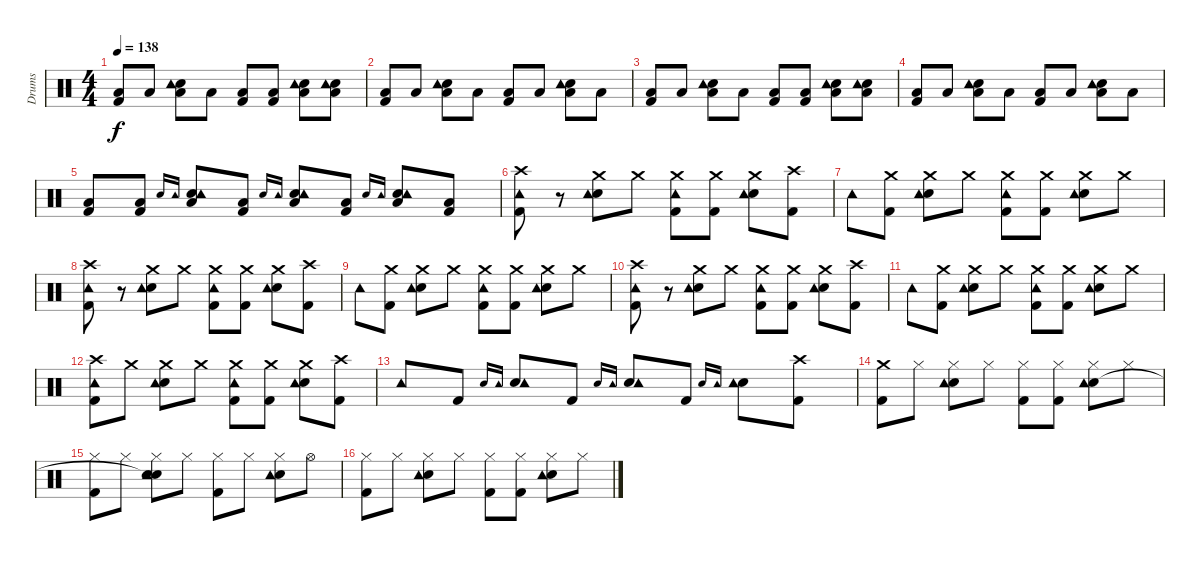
\track ("Drums" "Drums") {instrument percussion}
\staff {score}
\articulation defaults
\ts (4 4)
\tempo 138
\clef neutral
\ks c
("Low Floor Tom (hit)" "Kick (hit) 2").8{dy f} "Low Floor Tom (hit)".8 ("Low Floor Tom (hit)" "Electric Snare (hit)" "Tambourine (hit)").8 "Low Floor Tom (hit)".8 ("Low Floor Tom (hit)" "Kick (hit) 2").8 ("Low Floor Tom (hit)" "Kick (hit) 2").8 ("Low Floor Tom (hit)" "Electric Snare (hit)" "Tambourine (hit)").8 ("Low Floor Tom (hit)" "Electric Snare (hit)" "Tambourine (hit)").8 |
("Low Floor Tom (hit)" "Kick (hit) 2").8 "Low Floor Tom (hit)".8 ("Low Floor Tom (hit)" "Electric Snare (hit)" "Tambourine (hit)").8 "Low Floor Tom (hit)".8 ("Low Floor Tom (hit)" "Kick (hit) 2").8 "Low Floor Tom (hit)".8 ("Low Floor Tom (hit)" "Electric Snare (hit)" "Tambourine (hit)").8 "Low Floor Tom (hit)".8 |
("Low Floor Tom (hit)" "Kick (hit) 2").8 "Low Floor Tom (hit)".8 ("Low Floor Tom (hit)" "Electric Snare (hit)" "Tambourine (hit)").8 "Low Floor Tom (hit)".8 ("Low Floor Tom (hit)" "Kick (hit) 2").8 ("Low Floor Tom (hit)" "Kick (hit) 2").8 ("Low Floor Tom (hit)" "Electric Snare (hit)" "Tambourine (hit)").8 ("Low Floor Tom (hit)" "Electric Snare (hit)" "Tambourine (hit)").8 |
("Low Floor Tom (hit)" "Kick (hit) 2").8 "Low Floor Tom (hit)".8 ("Low Floor Tom (hit)" "Electric Snare (hit)" "Tambourine (hit)").8 "Low Floor Tom (hit)".8 ("Low Floor Tom (hit)" "Kick (hit) 2").8 "Low Floor Tom (hit)".8 ("Low Floor Tom (hit)" "Electric Snare (hit)" "Tambourine (hit)").8 "Low Floor Tom (hit)".8 |
("Low Floor Tom (hit)" "Kick (hit) 2").8 ("Low Floor Tom (hit)" "Kick (hit) 2").8 "Electric Snare (hit)".16{gr onbeat} "Tambourine (hit)".16{gr onbeat} ("Low Floor Tom (hit)" "Electric Snare (hit)" "Tambourine (hit)").8 ("Low Floor Tom (hit)" "Kick (hit) 2").8 "Electric Snare (hit)".16{gr onbeat} "Tambourine (hit)".16{gr onbeat} ("Low Floor Tom (hit)" "Electric Snare (hit)" "Tambourine (hit)").8 ("Low Floor Tom (hit)" "Kick (hit) 2").8 "Electric Snare (hit)".16{gr onbeat} "Tambourine (hit)".16{gr onbeat} ("Low Floor Tom (hit)" "Electric Snare (hit)" "Tambourine (hit)").8 ("Low Floor Tom (hit)" "Kick (hit) 2").8 |
("Crash high (hit)" "Kick (hit) 2" "Tambourine (hit)").8 r.8 ("Crash medium (hit)" "Electric Snare (hit)" "Tambourine (hit)").8 "Crash medium (hit)".8 ("Crash medium (hit)" "Kick (hit) 2" "Tambourine (hit)").8 ("Crash medium (hit)" "Kick (hit) 2").8 ("Crash medium (hit)" "Electric Snare (hit)" "Tambourine (hit)").8 ("Crash high (hit)" "Kick (hit) 2").8 |
"Tambourine (hit)".8 ("Crash medium (hit)" "Kick (hit) 2").8 ("Crash medium (hit)" "Electric Snare (hit)" "Tambourine (hit)").8 "Crash medium (hit)".8 ("Crash medium (hit)" "Kick (hit) 2" "Tambourine (hit)").8 ("Crash medium (hit)" "Kick (hit) 2").8 ("Crash medium (hit)" "Electric Snare (hit)" "Tambourine (hit)").8 "Crash medium (hit)".8 |
("Crash high (hit)" "Kick (hit) 2" "Tambourine (hit)").8 r.8 ("Crash medium (hit)" "Electric Snare (hit)" "Tambourine (hit)").8 "Crash medium (hit)".8 ("Crash medium (hit)" "Kick (hit) 2" "Tambourine (hit)").8 ("Crash medium (hit)" "Kick (hit) 2").8 ("Crash medium (hit)" "Electric Snare (hit)" "Tambourine (hit)").8 ("Crash high (hit)" "Kick (hit) 2").8 |
"Tambourine (hit)".8 ("Crash medium (hit)" "Kick (hit) 2").8 ("Crash medium (hit)" "Electric Snare (hit)" "Tambourine (hit)").8 "Crash medium (hit)".8 ("Crash medium (hit)" "Kick (hit) 2" "Tambourine (hit)").8 ("Crash medium (hit)" "Kick (hit) 2").8 ("Crash medium (hit)" "Electric Snare (hit)" "Tambourine (hit)").8 "Crash medium (hit)".8 |
("Crash high (hit)" "Kick (hit) 2" "Tambourine (hit)").8 r.8 ("Crash medium (hit)" "Electric Snare (hit)" "Tambourine (hit)").8 "Crash medium (hit)".8 ("Crash medium (hit)" "Kick (hit) 2" "Tambourine (hit)").8 ("Crash medium (hit)" "Kick (hit) 2").8 ("Crash medium (hit)" "Electric Snare (hit)" "Tambourine (hit)").8 ("Crash high (hit)" "Kick (hit) 2").8 |
"Tambourine (hit)".8 ("Crash medium (hit)" "Kick (hit) 2").8 ("Crash medium (hit)" "Electric Snare (hit)" "Tambourine (hit)").8 "Crash medium (hit)".8 ("Crash medium (hit)" "Kick (hit) 2" "Tambourine (hit)").8 ("Crash medium (hit)" "Kick (hit) 2").8 ("Crash medium (hit)" "Electric Snare (hit)" "Tambourine (hit)").8 "Crash medium (hit)".8 |
("Crash high (hit)" "Kick (hit) 2" "Tambourine (hit)").8 "Crash medium (hit)".8 ("Crash medium (hit)" "Electric Snare (hit)" "Tambourine (hit)").8 "Crash medium (hit)".8 ("Crash medium (hit)" "Kick (hit) 2" "Tambourine (hit)").8 ("Crash medium (hit)" "Kick (hit) 2").8 ("Crash medium (hit)" "Electric Snare (hit)" "Tambourine (hit)").8 ("Crash high (hit)" "Kick (hit) 2").8 |
"Tambourine (hit)".8 "Kick (hit) 2".8 "Electric Snare (hit)".16{gr onbeat} "Tambourine (hit)".16{gr onbeat} ("Electric Snare (hit)" "Tambourine (hit)").8 "Kick (hit) 2".8 "Electric Snare (hit)".16{gr onbeat} "Tambourine (hit)".16{gr onbeat} ("Electric Snare (hit)" "Tambourine (hit)").8 "Kick (hit) 2".8 "Electric Snare (hit)".16{gr onbeat} "Tambourine (hit)".16{gr onbeat} ("Electric Snare (hit)" "Tambourine (hit)").8 ("Crash high (hit)" "Kick (hit) 2").8 |
("Crash medium (hit)" "Kick (hit) 2").8 "Hi-Hat (closed)".8 ("Hi-Hat (closed)" "Electric Snare (hit)" "Tambourine (hit)").8 "Hi-Hat (closed)".8 ("Hi-Hat (closed)" "Kick (hit) 2").8 ("Hi-Hat (closed)" "Kick (hit) 2").8 ("Hi-Hat (closed)" "Electric Snare (hit)" "Tambourine (hit)").8 "Hi-Hat (closed)".8 |
("Hi-Hat (closed)" "Kick (hit) 2").8 "Hi-Hat (closed)".8 ("Hi-Hat (closed)" "Electric Snare (hit)" "Snare (hit)"{t} "Tambourine (hit)").8 "Hi-Hat (closed)".8 ("Hi-Hat (closed)" "Kick (hit) 2").8 "Hi-Hat (closed)".8 ("Hi-Hat (closed)" "Electric Snare (hit)" "Tambourine (hit)").8 "Hi-Hat (open)".8 |
("Hi-Hat (closed)" "Kick (hit) 2").8 "Hi-Hat (closed)".8 ("Hi-Hat (closed)" "Electric Snare (hit)" "Tambourine (hit)").8 "Hi-Hat (closed)".8 ("Hi-Hat (closed)" "Kick (hit) 2").8 ("Hi-Hat (closed)" "Kick (hit) 2").8 ("Hi-Hat (closed)" "Electric Snare (hit)" "Tambourine (hit)").8 "Hi-Hat (closed)".8
